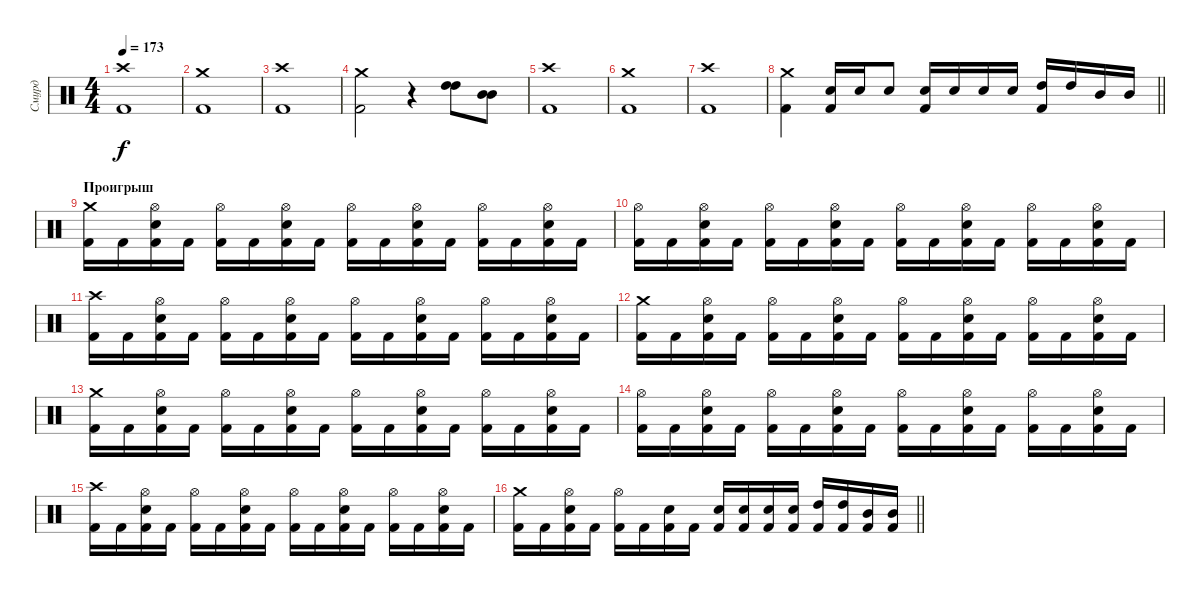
\track ("Смурд" "Смурд") {instrument percussion}
\staff {score}
\articulation defaults
\ts (4 4)
\tempo 173
\clef neutral
\ks c
("Crash high (hit)" "Kick (hit) 2").1{dy f} |
("Crash medium (hit)" "Kick (hit) 2").1 |
("Crash high (hit)" "Kick (hit) 2").1 |
("Crash medium (hit)" "Kick (hit) 2").2 r.4 ("High Tom (hit)" "High Tom (hit)").8 ("Mid Tom (hit)" "Mid Tom (hit)").8 |
("Crash high (hit)" "Kick (hit) 2").1 |
("Crash medium (hit)" "Kick (hit) 2").1 |
("Crash high (hit)" "Kick (hit) 2").1 |
\barLineRight lightlight
("Crash medium (hit)" "Kick (hit) 2").4 ("Electric Snare (hit)" "Kick (hit) 2").16 "Electric Snare (hit)".16 "Electric Snare (hit)".8 ("Electric Snare (hit)" "Kick (hit) 2").16 "Electric Snare (hit)".16 "Electric Snare (hit)".16 "Electric Snare (hit)".16 ("High Tom (hit)" "Kick (hit) 2").16 "High Tom (hit)".16 "Mid Tom (hit)".16 "Mid Tom (hit)".16 |
\section ("" "Проигрыш")
("Crash medium (hit)" "Kick (hit) 2").16 "Kick (hit) 2".16 ("Hi-Hat (open)" "Electric Snare (hit)" "Kick (hit) 2").16 "Kick (hit) 2".16 ("Hi-Hat (open)" "Kick (hit) 2").16 "Kick (hit) 2".16 ("Hi-Hat (open)" "Electric Snare (hit)" "Kick (hit) 2").16 "Kick (hit) 2".16 ("Hi-Hat (open)" "Kick (hit) 2").16 "Kick (hit) 2".16 ("Hi-Hat (open)" "Electric Snare (hit)" "Kick (hit) 2").16 "Kick (hit) 2".16 ("Hi-Hat (open)" "Kick (hit) 2").16 "Kick (hit) 2".16 ("Hi-Hat (open)" "Electric Snare (hit)" "Kick (hit) 2").16 "Kick (hit) 2".16 |
("Hi-Hat (open)" "Kick (hit) 2").16 "Kick (hit) 2".16 ("Hi-Hat (open)" "Electric Snare (hit)" "Kick (hit) 2").16 "Kick (hit) 2".16 ("Hi-Hat (open)" "Kick (hit) 2").16 "Kick (hit) 2".16 ("Hi-Hat (open)" "Electric Snare (hit)" "Kick (hit) 2").16 "Kick (hit) 2".16 ("Hi-Hat (open)" "Kick (hit) 2").16 "Kick (hit) 2".16 ("Hi-Hat (open)" "Electric Snare (hit)" "Kick (hit) 2").16 "Kick (hit) 2".16 ("Hi-Hat (open)" "Kick (hit) 2").16 "Kick (hit) 2".16 ("Hi-Hat (open)" "Electric Snare (hit)" "Kick (hit) 2").16 "Kick (hit) 2".16 |
("Crash high (hit)" "Kick (hit) 2").16 "Kick (hit) 2".16 ("Hi-Hat (open)" "Electric Snare (hit)" "Kick (hit) 2").16 "Kick (hit) 2".16 ("Hi-Hat (open)" "Kick (hit) 2").16 "Kick (hit) 2".16 ("Hi-Hat (open)" "Electric Snare (hit)" "Kick (hit) 2").16 "Kick (hit) 2".16 ("Hi-Hat (open)" "Kick (hit) 2").16 "Kick (hit) 2".16 ("Hi-Hat (open)" "Electric Snare (hit)" "Kick (hit) 2").16 "Kick (hit) 2".16 ("Hi-Hat (open)" "Kick (hit) 2").16 "Kick (hit) 2".16 ("Hi-Hat (open)" "Electric Snare (hit)" "Kick (hit) 2").16 "Kick (hit) 2".16 |
("Crash medium (hit)" "Kick (hit) 2").16 "Kick (hit) 2".16 ("Hi-Hat (open)" "Electric Snare (hit)" "Kick (hit) 2").16 "Kick (hit) 2".16 ("Hi-Hat (open)" "Kick (hit) 2").16 "Kick (hit) 2".16 ("Hi-Hat (open)" "Electric Snare (hit)" "Kick (hit) 2").16 "Kick (hit) 2".16 ("Hi-Hat (open)" "Kick (hit) 2").16 "Kick (hit) 2".16 ("Hi-Hat (open)" "Electric Snare (hit)" "Kick (hit) 2").16 "Kick (hit) 2".16 ("Hi-Hat (open)" "Kick (hit) 2").16 "Kick (hit) 2".16 ("Hi-Hat (open)" "Electric Snare (hit)" "Kick (hit) 2").16 "Kick (hit) 2".16 |
("Crash medium (hit)" "Kick (hit) 2").16 "Kick (hit) 2".16 ("Hi-Hat (open)" "Electric Snare (hit)" "Kick (hit) 2").16 "Kick (hit) 2".16 ("Hi-Hat (open)" "Kick (hit) 2").16 "Kick (hit) 2".16 ("Hi-Hat (open)" "Electric Snare (hit)" "Kick (hit) 2").16 "Kick (hit) 2".16 ("Hi-Hat (open)" "Kick (hit) 2").16 "Kick (hit) 2".16 ("Hi-Hat (open)" "Electric Snare (hit)" "Kick (hit) 2").16 "Kick (hit) 2".16 ("Hi-Hat (open)" "Kick (hit) 2").16 "Kick (hit) 2".16 ("Hi-Hat (open)" "Electric Snare (hit)" "Kick (hit) 2").16 "Kick (hit) 2".16 |
("Hi-Hat (open)" "Kick (hit) 2").16 "Kick (hit) 2".16 ("Hi-Hat (open)" "Electric Snare (hit)" "Kick (hit) 2").16 "Kick (hit) 2".16 ("Hi-Hat (open)" "Kick (hit) 2").16 "Kick (hit) 2".16 ("Hi-Hat (open)" "Electric Snare (hit)" "Kick (hit) 2").16 "Kick (hit) 2".16 ("Hi-Hat (open)" "Kick (hit) 2").16 "Kick (hit) 2".16 ("Hi-Hat (open)" "Electric Snare (hit)" "Kick (hit) 2").16 "Kick (hit) 2".16 ("Hi-Hat (open)" "Kick (hit) 2").16 "Kick (hit) 2".16 ("Hi-Hat (open)" "Electric Snare (hit)" "Kick (hit) 2").16 "Kick (hit) 2".16 |
("Crash high (hit)" "Kick (hit) 2").16 "Kick (hit) 2".16 ("Hi-Hat (open)" "Electric Snare (hit)" "Kick (hit) 2").16 "Kick (hit) 2".16 ("Hi-Hat (open)" "Kick (hit) 2").16 "Kick (hit) 2".16 ("Hi-Hat (open)" "Electric Snare (hit)" "Kick (hit) 2").16 "Kick (hit) 2".16 ("Hi-Hat (open)" "Kick (hit) 2").16 "Kick (hit) 2".16 ("Hi-Hat (open)" "Electric Snare (hit)" "Kick (hit) 2").16 "Kick (hit) 2".16 ("Hi-Hat (open)" "Kick (hit) 2").16 "Kick (hit) 2".16 ("Hi-Hat (open)" "Electric Snare (hit)" "Kick (hit) 2").16 "Kick (hit) 2".16 |
\barLineRight lightlight
("Crash medium (hit)" "Kick (hit) 2").16 "Kick (hit) 2".16 ("Hi-Hat (open)" "Electric Snare (hit)" "Kick (hit) 2").16 "Kick (hit) 2".16 ("Hi-Hat (open)" "Kick (hit) 2").16 "Kick (hit) 2".16 ("Electric Snare (hit)" "Kick (hit) 2").16 "Kick (hit) 2".16 ("Electric Snare (hit)" "Kick (hit) 2").16 ("Electric Snare (hit)" "Kick (hit) 2").16 ("Electric Snare (hit)" "Kick (hit) 2").16 ("Electric Snare (hit)" "Kick (hit) 2").16 ("High Tom (hit)" "Kick (hit) 2").16 ("High Tom (hit)" "Kick (hit) 2").16 ("Mid Tom (hit)" "Kick (hit) 2").16 ("Mid Tom (hit)" "Kick (hit) 2").16
